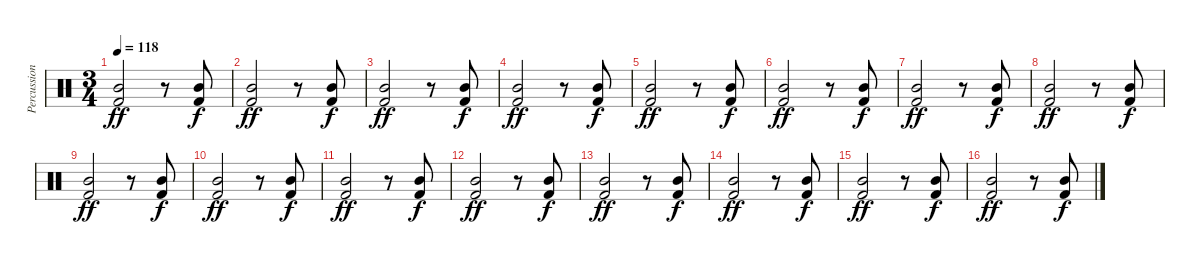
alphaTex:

\track ("Percussion" "Percussion") {instrument percussion}
\staff {score}
\articulation defaults
\ts (3 4)
\tempo 118
\clef neutral
\ks c
("Mid Tom (hit)" "Kick (hit) 2").2{dy ff} r.8 ("Mid Tom (hit)" "Kick (hit) 2").8{dy f} |
("Mid Tom (hit)" "Kick (hit) 2").2{dy ff} r.8 ("Mid Tom (hit)" "Kick (hit) 2").8{dy f} |
("Mid Tom (hit)" "Kick (hit) 2").2{dy ff} r.8 ("Mid Tom (hit)" "Kick (hit) 2").8{dy f} |
("Mid Tom (hit)" "Kick (hit) 2").2{dy ff} r.8 ("Mid Tom (hit)" "Kick (hit) 2").8{dy f} |
("Mid Tom (hit)" "Kick (hit) 2").2{dy ff} r.8 ("Mid Tom (hit)" "Kick (hit) 2").8{dy f} |
("Mid Tom (hit)" "Kick (hit) 2").2{dy ff} r.8 ("Mid Tom (hit)" "Kick (hit) 2").8{dy f} |
("Mid Tom (hit)" "Kick (hit) 2").2{dy ff} r.8 ("Mid Tom (hit)" "Kick (hit) 2").8{dy f} |
("Mid Tom (hit)" "Kick (hit) 2").2{dy ff} r.8 ("Mid Tom (hit)" "Kick (hit) 2").8{dy f} |
("Mid Tom (hit)" "Kick (hit) 2").2{dy ff} r.8 ("Mid Tom (hit)" "Kick (hit) 2").8{dy f} |
("Mid Tom (hit)" "Kick (hit) 2").2{dy ff} r.8 ("Mid Tom (hit)" "Kick (hit) 2").8{dy f} |
("Mid Tom (hit)" "Kick (hit) 2").2{dy ff} r.8 ("Mid Tom (hit)" "Kick (hit) 2").8{dy f} |
("Mid Tom (hit)" "Kick (hit) 2").2{dy ff volume 6} r.8 ("Mid Tom (hit)" "Kick (hit) 2").8{dy f} |
("Mid Tom (hit)" "Kick (hit) 2").2{dy ff} r.8 ("Mid Tom (hit)" "Kick (hit) 2").8{dy f} |
("Mid Tom (hit)" "Kick (hit) 2").2{dy ff} r.8 ("Mid Tom (hit)" "Kick (hit) 2").8{dy f} |
("Mid Tom (hit)" "Kick (hit) 2").2{dy ff} r.8 ("Mid Tom (hit)" "Kick (hit) 2").8{dy f} |
("Mid Tom (hit)" "Kick (hit) 2").2{dy ff} r.8 ("Mid Tom (hit)" "Kick (hit) 2").8{dy f}
